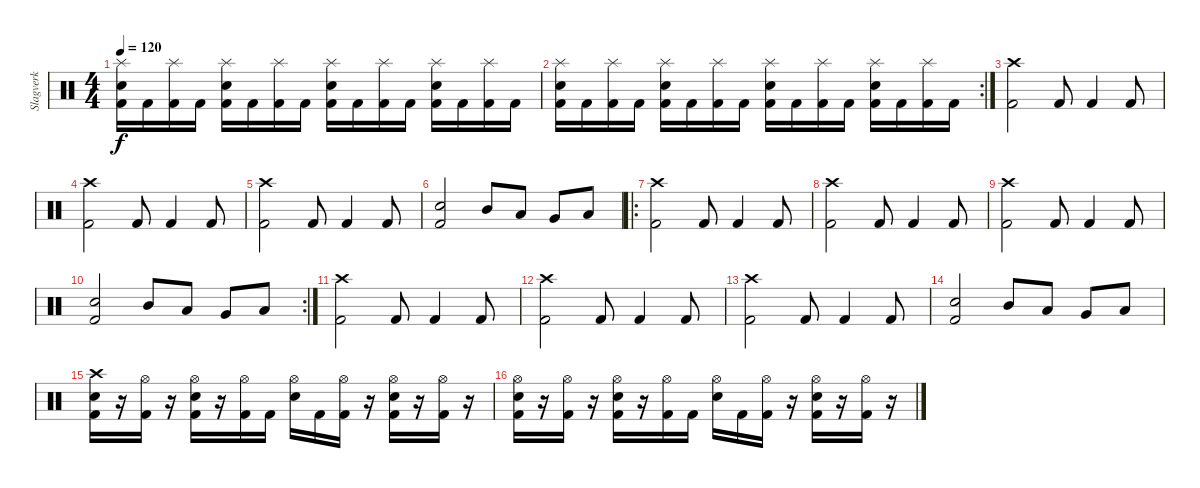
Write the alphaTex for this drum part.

\track ("Slagverk" "Slagverk") {instrument percussion}
\staff {score}
\articulation defaults
\ts (4 4)
\tempo 120
\clef neutral
\ks c
("Kick (hit) 2" "Electric Snare (hit)" "Splash (hit)").16{dy f} "Kick (hit) 2".16 ("Kick (hit) 2" "Splash (hit)").16 "Kick (hit) 2".16 ("Kick (hit) 2" "Electric Snare (hit)" "Splash (hit)").16 "Kick (hit) 2".16 ("Kick (hit) 2" "Splash (hit)").16 "Kick (hit) 2".16 ("Kick (hit) 2" "Electric Snare (hit)" "Splash (hit)").16 "Kick (hit) 2".16 ("Kick (hit) 2" "Splash (hit)").16 "Kick (hit) 2".16 ("Kick (hit) 2" "Electric Snare (hit)" "Splash (hit)").16 "Kick (hit) 2".16 ("Kick (hit) 2" "Splash (hit)").16 "Kick (hit) 2".16 |
\rc 2
("Kick (hit) 2" "Electric Snare (hit)" "Splash (hit)").16 "Kick (hit) 2".16 ("Kick (hit) 2" "Splash (hit)").16 "Kick (hit) 2".16 ("Kick (hit) 2" "Electric Snare (hit)" "Splash (hit)").16 "Kick (hit) 2".16 ("Kick (hit) 2" "Splash (hit)").16 "Kick (hit) 2".16 ("Kick (hit) 2" "Electric Snare (hit)" "Splash (hit)").16 "Kick (hit) 2".16 ("Kick (hit) 2" "Splash (hit)").16 "Kick (hit) 2".16 ("Kick (hit) 2" "Electric Snare (hit)" "Splash (hit)").16 "Kick (hit) 2".16 ("Kick (hit) 2" "Splash (hit)").16 "Kick (hit) 2".16 |
("Kick (hit) 2" "Crash high (hit)").2 "Kick (hit) 2".8 "Kick (hit) 2".4 "Kick (hit) 2".8 |
("Kick (hit) 2" "Crash high (hit)").2 "Kick (hit) 2".8 "Kick (hit) 2".4 "Kick (hit) 2".8 |
("Kick (hit) 2" "Crash high (hit)").2 "Kick (hit) 2".8 "Kick (hit) 2".4 "Kick (hit) 2".8 |
("Kick (hit) 2" "Electric Snare (hit)").2 "Mid Tom (hit)".8 "Low Tom (hit)".8 "Very Low Tom (hit)".8 "Low Floor Tom (hit)".8 |
\ro
("Kick (hit) 2" "Crash high (hit)").2 "Kick (hit) 2".8 "Kick (hit) 2".4 "Kick (hit) 2".8 |
("Kick (hit) 2" "Crash high (hit)").2 "Kick (hit) 2".8 "Kick (hit) 2".4 "Kick (hit) 2".8 |
("Kick (hit) 2" "Crash high (hit)").2 "Kick (hit) 2".8 "Kick (hit) 2".4 "Kick (hit) 2".8 |
\rc 2
("Kick (hit) 2" "Electric Snare (hit)").2 "Mid Tom (hit)".8 "Low Tom (hit)".8 "Very Low Tom (hit)".8 "Low Floor Tom (hit)".8 |
("Kick (hit) 2" "Crash high (hit)").2 "Kick (hit) 2".8 "Kick (hit) 2".4 "Kick (hit) 2".8 |
("Kick (hit) 2" "Crash high (hit)").2 "Kick (hit) 2".8 "Kick (hit) 2".4 "Kick (hit) 2".8 |
("Kick (hit) 2" "Crash high (hit)").2 "Kick (hit) 2".8 "Kick (hit) 2".4 "Kick (hit) 2".8 |
("Kick (hit) 2" "Electric Snare (hit)").2 "Mid Tom (hit)".8 "Low Tom (hit)".8 "Very Low Tom (hit)".8 "Low Floor Tom (hit)".8 |
("Kick (hit) 2" "Electric Snare (hit)" "Crash high (hit)").16 r.16 ("Kick (hit) 2" "Hi-Hat (open)").16 r.16 ("Kick (hit) 2" "Electric Snare (hit)" "Hi-Hat (open)").16 r.16 ("Kick (hit) 2" "Hi-Hat (open)").16 "Kick (hit) 2".16 ("Electric Snare (hit)" "Hi-Hat (open)").16 "Kick (hit) 2".16 ("Kick (hit) 2" "Hi-Hat (open)").16 r.16 ("Kick (hit) 2" "Electric Snare (hit)" "Hi-Hat (open)").16 r.16 ("Kick (hit) 2" "Hi-Hat (open)").16 r.16 |
("Kick (hit) 2" "Electric Snare (hit)" "Hi-Hat (open)").16 r.16 ("Kick (hit) 2" "Hi-Hat (open)").16 r.16 ("Kick (hit) 2" "Electric Snare (hit)" "Hi-Hat (open)").16 r.16 ("Kick (hit) 2" "Hi-Hat (open)").16 "Kick (hit) 2".16 ("Electric Snare (hit)" "Hi-Hat (open)").16 "Kick (hit) 2".16 ("Kick (hit) 2" "Hi-Hat (open)").16 r.16 ("Kick (hit) 2" "Electric Snare (hit)" "Hi-Hat (open)").16 r.16 ("Kick (hit) 2" "Hi-Hat (open)").16 r.16
